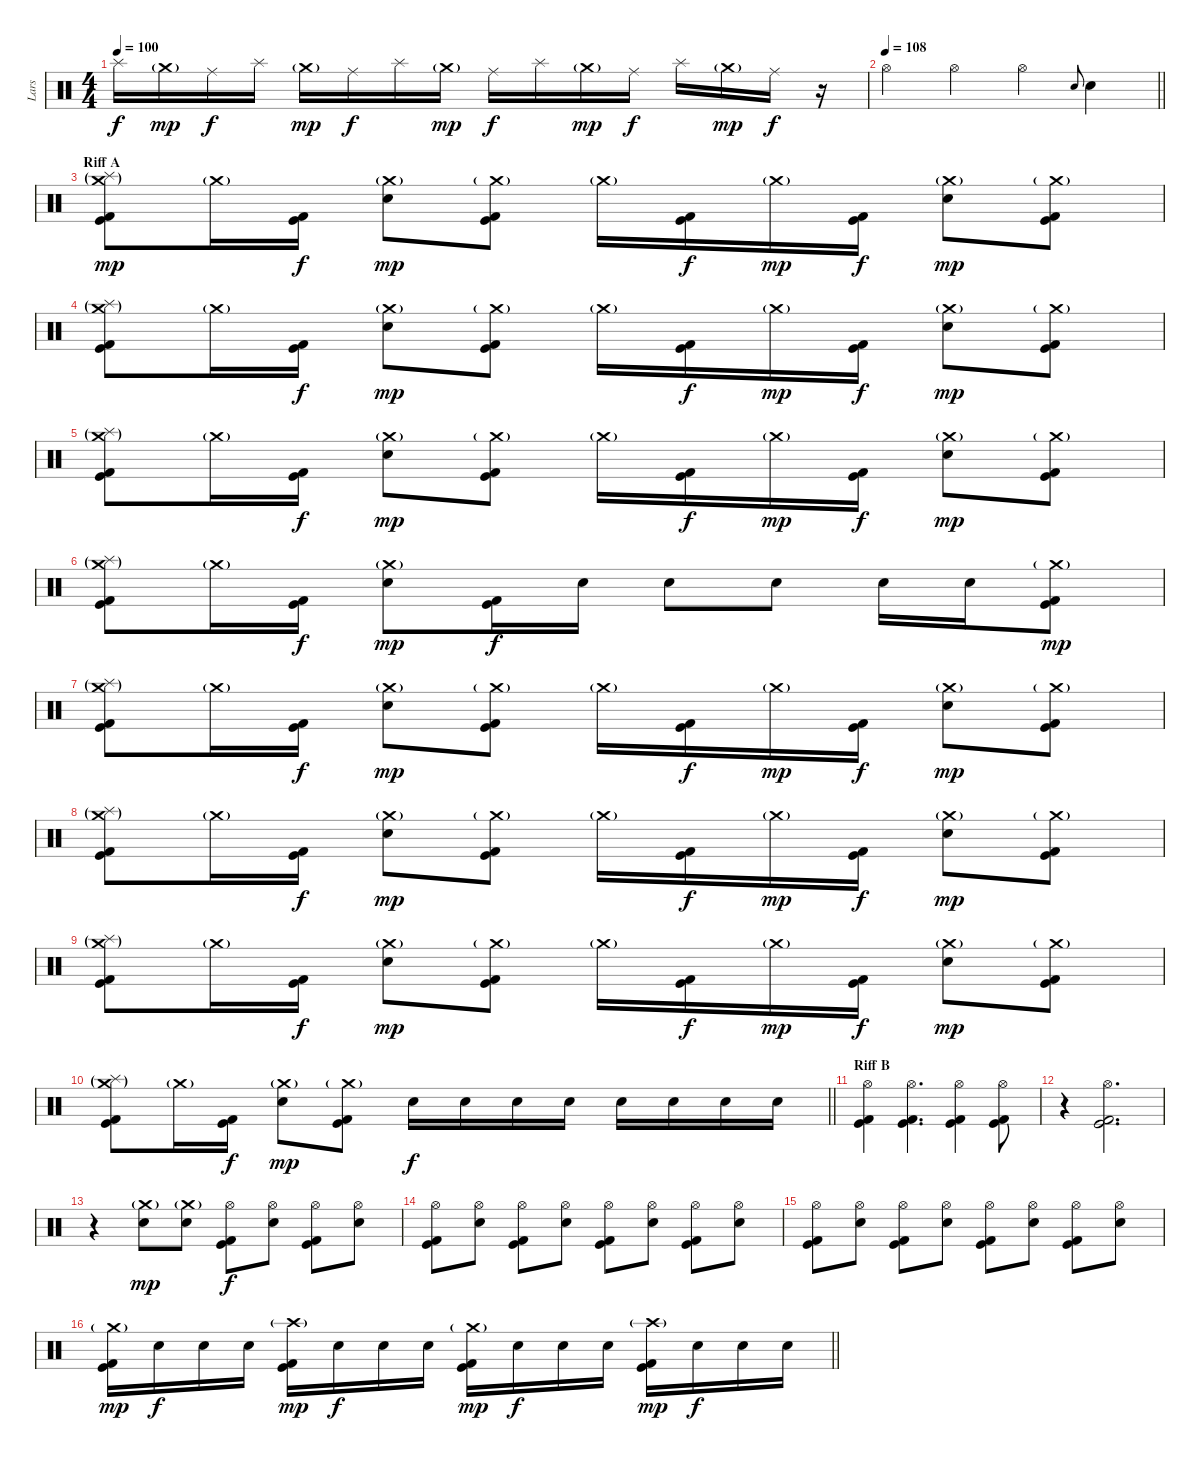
\track ("Lars" "Lars") {instrument percussion}
\staff {score}
\articulation defaults
\ts (4 4)
\tempo 100
\clef neutral
\ks c "Splash (hit)".16{dy f} "Crash medium (hit)"{g}.16{dy mp} "Ride (middle)".16{dy f} "Splash (hit)".16 "Crash medium (hit)"{g}.16{dy mp} "Ride (middle)".16{dy f} "Splash (hit)".16 "Crash medium (hit)"{g}.16{dy mp} "Ride (middle)".16{dy f} "Splash (hit)".16 "Crash medium (hit)"{g}.16{dy mp} "Ride (middle)".16{dy f} "Splash (hit)".16 "Crash medium (hit)"{g}.16{dy mp} "Ride (middle)".16{dy f}
r.16 |
\tempo 108
\barLineRight lightlight "Hi-Hat (open)".4{volume 16} "Hi-Hat (open)".4 "Hi-Hat (open)".4 "Electric Snare (hit)".8{gr onbeat} "Electric Snare (hit)".4
|
\section ("" "Riff A")
("Crash medium (hit)"{g} "Splash (hit)"{g} "Kick (hit)" "Kick (hit) 2").8{dy mp} "Crash medium (hit)"{g}.16 ("Kick (hit)" "Kick (hit) 2").16{dy f} ("Crash medium (hit)"{g} "Electric Snare (hit)").8{dy mp} ("Crash medium (hit)"{g} "Kick (hit)" "Kick (hit) 2").8 "Crash medium (hit)"{g}.16 ("Kick (hit)" "Kick (hit) 2").16{dy f} "Crash medium (hit)"{g}.16{dy mp} ("Kick (hit)" "Kick (hit) 2").16{dy f} ("Crash medium (hit)"{g} "Electric Snare (hit)").8{dy mp} ("Crash medium (hit)"{g} "Kick (hit)" "Kick (hit) 2").8 |
("Crash medium (hit)"{g} "Splash (hit)"{g} "Kick (hit)" "Kick (hit) 2").8 "Crash medium (hit)"{g}.16 ("Kick (hit)" "Kick (hit) 2").16{dy f} ("Crash medium (hit)"{g} "Electric Snare (hit)").8{dy mp} ("Crash medium (hit)"{g} "Kick (hit)" "Kick (hit) 2").8 "Crash medium (hit)"{g}.16 ("Kick (hit)" "Kick (hit) 2").16{dy f} "Crash medium (hit)"{g}.16{dy mp} ("Kick (hit)" "Kick (hit) 2").16{dy f} ("Crash medium (hit)"{g} "Electric Snare (hit)").8{dy mp} ("Crash medium (hit)"{g} "Kick (hit)" "Kick (hit) 2").8 |
("Crash medium (hit)"{g} "Splash (hit)"{g} "Kick (hit)" "Kick (hit) 2").8 "Crash medium (hit)"{g}.16 ("Kick (hit)" "Kick (hit) 2").16{dy f} ("Crash medium (hit)"{g} "Electric Snare (hit)").8{dy mp} ("Crash medium (hit)"{g} "Kick (hit)" "Kick (hit) 2").8 "Crash medium (hit)"{g}.16 ("Kick (hit)" "Kick (hit) 2").16{dy f} "Crash medium (hit)"{g}.16{dy mp} ("Kick (hit)" "Kick (hit) 2").16{dy f} ("Crash medium (hit)"{g} "Electric Snare (hit)").8{dy mp} ("Crash medium (hit)"{g} "Kick (hit)" "Kick (hit) 2").8 |
("Crash medium (hit)"{g} "Splash (hit)"{g} "Kick (hit)" "Kick (hit) 2").8 "Crash medium (hit)"{g}.16 ("Kick (hit)" "Kick (hit) 2").16{dy f} ("Crash medium (hit)"{g} "Electric Snare (hit)").8{dy mp} ("Kick (hit)" "Kick (hit) 2").16{dy f} "Electric Snare (hit)".16 "Electric Snare (hit)".8 "Electric Snare (hit)".8 "Electric Snare (hit)".16 "Electric Snare (hit)".16 ("Crash medium (hit)"{g} "Kick (hit)" "Kick (hit) 2").8{dy mp} |
("Crash medium (hit)"{g} "Splash (hit)"{g} "Kick (hit)" "Kick (hit) 2").8 "Crash medium (hit)"{g}.16 ("Kick (hit)" "Kick (hit) 2").16{dy f} ("Crash medium (hit)"{g} "Electric Snare (hit)").8{dy mp} ("Crash medium (hit)"{g} "Kick (hit)" "Kick (hit) 2").8 "Crash medium (hit)"{g}.16 ("Kick (hit)" "Kick (hit) 2").16{dy f} "Crash medium (hit)"{g}.16{dy mp} ("Kick (hit)" "Kick (hit) 2").16{dy f} ("Crash medium (hit)"{g} "Electric Snare (hit)").8{dy mp} ("Crash medium (hit)"{g} "Kick (hit)" "Kick (hit) 2").8 |
("Crash medium (hit)"{g} "Splash (hit)"{g} "Kick (hit)" "Kick (hit) 2").8 "Crash medium (hit)"{g}.16 ("Kick (hit)" "Kick (hit) 2").16{dy f} ("Crash medium (hit)"{g} "Electric Snare (hit)").8{dy mp} ("Crash medium (hit)"{g} "Kick (hit)" "Kick (hit) 2").8 "Crash medium (hit)"{g}.16 ("Kick (hit)" "Kick (hit) 2").16{dy f} "Crash medium (hit)"{g}.16{dy mp} ("Kick (hit)" "Kick (hit) 2").16{dy f} ("Crash medium (hit)"{g} "Electric Snare (hit)").8{dy mp} ("Crash medium (hit)"{g} "Kick (hit)" "Kick (hit) 2").8 |
("Crash medium (hit)"{g} "Splash (hit)"{g} "Kick (hit)" "Kick (hit) 2").8 "Crash medium (hit)"{g}.16 ("Kick (hit)" "Kick (hit) 2").16{dy f} ("Crash medium (hit)"{g} "Electric Snare (hit)").8{dy mp} ("Crash medium (hit)"{g} "Kick (hit)" "Kick (hit) 2").8 "Crash medium (hit)"{g}.16 ("Kick (hit)" "Kick (hit) 2").16{dy f} "Crash medium (hit)"{g}.16{dy mp} ("Kick (hit)" "Kick (hit) 2").16{dy f} ("Crash medium (hit)"{g} "Electric Snare (hit)").8{dy mp} ("Crash medium (hit)"{g} "Kick (hit)" "Kick (hit) 2").8 |
\barLineRight lightlight
("Crash medium (hit)"{g} "Splash (hit)"{g} "Kick (hit)" "Kick (hit) 2").8 "Crash medium (hit)"{g}.16 ("Kick (hit)" "Kick (hit) 2").16{dy f} ("Crash medium (hit)"{g} "Electric Snare (hit)").8{dy mp} ("Crash medium (hit)"{g} "Kick (hit)" "Kick (hit) 2").8 "Electric Snare (hit)".16{dy f} "Electric Snare (hit)".16 "Electric Snare (hit)".16 "Electric Snare (hit)".16 "Electric Snare (hit)".16 "Electric Snare (hit)".16 "Electric Snare (hit)".16 "Electric Snare (hit)".16 |
\section ("" "Riff B")
("Hi-Hat (open)" "Kick (hit)" "Kick (hit) 2").4 ("Hi-Hat (open)" "Kick (hit)" "Kick (hit) 2").4{d} ("Hi-Hat (open)" "Kick (hit)" "Kick (hit) 2").4 ("Hi-Hat (open)" "Kick (hit)" "Kick (hit) 2").8 |
r.4 ("Hi-Hat (open)" "Kick (hit)" "Kick (hit) 2").2{d} |
r.4 ("Crash medium (hit)"{g} "Electric Snare (hit)").8{dy mp} ("Crash medium (hit)"{g} "Electric Snare (hit)").8 ("Hi-Hat (open)" "Kick (hit)" "Kick (hit) 2").8{dy f} ("Hi-Hat (open)" "Electric Snare (hit)").8 ("Hi-Hat (open)" "Kick (hit)" "Kick (hit) 2").8 ("Hi-Hat (open)" "Electric Snare (hit)").8 |
("Hi-Hat (open)" "Kick (hit)" "Kick (hit) 2").8 ("Hi-Hat (open)" "Electric Snare (hit)").8 ("Hi-Hat (open)" "Kick (hit)" "Kick (hit) 2").8 ("Hi-Hat (open)" "Electric Snare (hit)").8 ("Hi-Hat (open)" "Kick (hit)" "Kick (hit) 2").8 ("Hi-Hat (open)" "Electric Snare (hit)").8 ("Hi-Hat (open)" "Kick (hit)" "Kick (hit) 2").8 ("Hi-Hat (open)" "Electric Snare (hit)").8 |
("Hi-Hat (open)" "Kick (hit)" "Kick (hit) 2").8 ("Hi-Hat (open)" "Electric Snare (hit)").8 ("Hi-Hat (open)" "Kick (hit)" "Kick (hit) 2").8 ("Hi-Hat (open)" "Electric Snare (hit)").8 ("Hi-Hat (open)" "Kick (hit)" "Kick (hit) 2").8 ("Hi-Hat (open)" "Electric Snare (hit)").8 ("Hi-Hat (open)" "Kick (hit)" "Kick (hit) 2").8 ("Hi-Hat (open)" "Electric Snare (hit)").8 |
\barLineRight lightlight
("Crash medium (hit)"{g} "Kick (hit)" "Kick (hit) 2").16{dy mp} "Electric Snare (hit)".16{dy f} "Electric Snare (hit)".16 "Electric Snare (hit)".16 ("Crash high (hit)"{g} "Kick (hit)" "Kick (hit) 2").16{dy mp} "Electric Snare (hit)".16{dy f} "Electric Snare (hit)".16 "Electric Snare (hit)".16 ("Crash medium (hit)"{g} "Kick (hit)" "Kick (hit) 2").16{dy mp} "Electric Snare (hit)".16{dy f} "Electric Snare (hit)".16 "Electric Snare (hit)".16 ("Crash high (hit)"{g} "Kick (hit)" "Kick (hit) 2").16{dy mp} "Electric Snare (hit)".16{dy f} "Electric Snare (hit)".16 "Electric Snare (hit)".16
